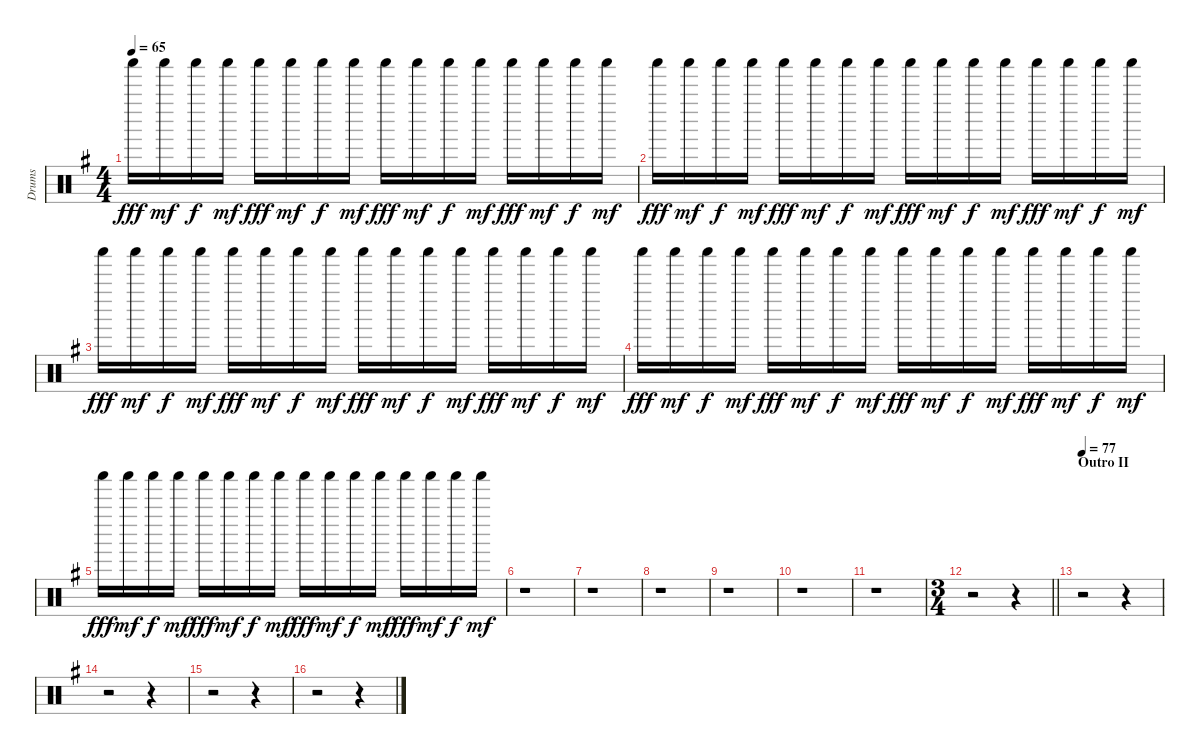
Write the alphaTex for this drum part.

\track ("Drums" "Drums") {instrument percussion}
\staff {score}
\articulation defaults
\ts (4 4)
\tempo 65
\clef neutral
\ks eminor "Shaker (hit)".16{dy fff} "Shaker (hit)".16{dy mf} "Shaker (hit)".16{dy f} "Shaker (hit)".16{dy mf} "Shaker (hit)".16{dy fff} "Shaker (hit)".16{dy mf} "Shaker (hit)".16{dy f} "Shaker (hit)".16{dy mf} "Shaker (hit)".16{dy fff} "Shaker (hit)".16{dy mf} "Shaker (hit)".16{dy f} "Shaker (hit)".16{dy mf} "Shaker (hit)".16{dy fff} "Shaker (hit)".16{dy mf} "Shaker (hit)".16{dy f} "Shaker (hit)".16{dy mf}
|
"Shaker (hit)".16{dy fff volume 0} "Shaker (hit)".16{dy mf} "Shaker (hit)".16{dy f} "Shaker (hit)".16{dy mf} "Shaker (hit)".16{dy fff} "Shaker (hit)".16{dy mf} "Shaker (hit)".16{dy f} "Shaker (hit)".16{dy mf} "Shaker (hit)".16{dy fff} "Shaker (hit)".16{dy mf} "Shaker (hit)".16{dy f} "Shaker (hit)".16{dy mf} "Shaker (hit)".16{dy fff} "Shaker (hit)".16{dy mf} "Shaker (hit)".16{dy f} "Shaker (hit)".16{dy mf} |
"Shaker (hit)".16{dy fff} "Shaker (hit)".16{dy mf} "Shaker (hit)".16{dy f} "Shaker (hit)".16{dy mf} "Shaker (hit)".16{dy fff} "Shaker (hit)".16{dy mf} "Shaker (hit)".16{dy f} "Shaker (hit)".16{dy mf} "Shaker (hit)".16{dy fff} "Shaker (hit)".16{dy mf} "Shaker (hit)".16{dy f} "Shaker (hit)".16{dy mf} "Shaker (hit)".16{dy fff} "Shaker (hit)".16{dy mf} "Shaker (hit)".16{dy f} "Shaker (hit)".16{dy mf} |
"Shaker (hit)".16{dy fff} "Shaker (hit)".16{dy mf} "Shaker (hit)".16{dy f} "Shaker (hit)".16{dy mf} "Shaker (hit)".16{dy fff} "Shaker (hit)".16{dy mf} "Shaker (hit)".16{dy f} "Shaker (hit)".16{dy mf} "Shaker (hit)".16{dy fff} "Shaker (hit)".16{dy mf} "Shaker (hit)".16{dy f} "Shaker (hit)".16{dy mf} "Shaker (hit)".16{dy fff} "Shaker (hit)".16{dy mf} "Shaker (hit)".16{dy f} "Shaker (hit)".16{dy mf} |
"Shaker (hit)".16{dy fff} "Shaker (hit)".16{dy mf} "Shaker (hit)".16{dy f} "Shaker (hit)".16{dy mf} "Shaker (hit)".16{dy fff} "Shaker (hit)".16{dy mf} "Shaker (hit)".16{dy f} "Shaker (hit)".16{dy mf} "Shaker (hit)".16{dy fff} "Shaker (hit)".16{dy mf} "Shaker (hit)".16{dy f} "Shaker (hit)".16{dy mf} "Shaker (hit)".16{dy fff} "Shaker (hit)".16{dy mf} "Shaker (hit)".16{dy f} "Shaker (hit)".16{dy mf} |
r.1 |
r.1 |
r.1 |
r.1 |
r.1 |
r.1 |
\ts (3 4)
\barLineRight lightlight
r.2 r.4 |
\section ("" "Outro II")
\tempo 77
r.2 r.4 |
r.2 r.4 |
r.2 r.4 |
r.2 r.4
